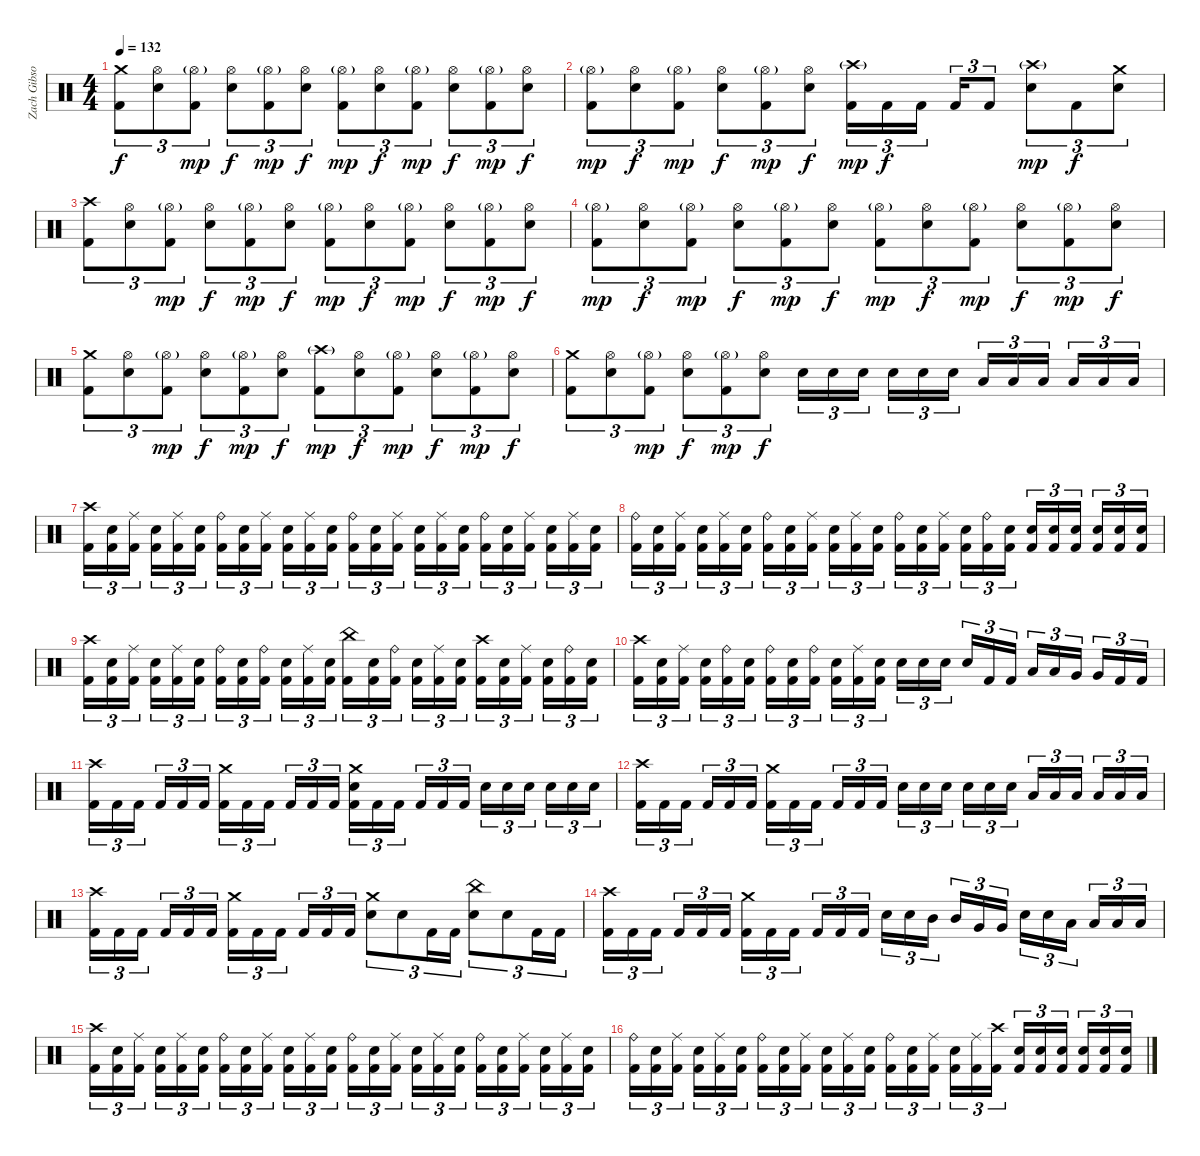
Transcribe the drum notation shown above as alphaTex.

\track ("Zach Gibson (Drums)" "Zach Gibso") {instrument percussion}
\staff {score}
\articulation defaults
\ts (4 4)
\tempo 132
\clef neutral
\ks c
("Crash medium (hit)" "Kick (hit) 2").8{tu (3 2) dy f} ("Hi-Hat (open)" "Snare (hit) 2").8{tu (3 2)} ("Hi-Hat (open)"{g} "Kick (hit) 2").8{tu (3 2) dy mp} ("Hi-Hat (open)" "Snare (hit) 2").8{tu (3 2) dy f} ("Hi-Hat (open)"{g} "Kick (hit) 2").8{tu (3 2) dy mp} ("Hi-Hat (open)" "Snare (hit) 2").8{tu (3 2) dy f} ("Hi-Hat (open)"{g} "Kick (hit) 2").8{tu (3 2) dy mp} ("Hi-Hat (open)" "Snare (hit) 2").8{tu (3 2) dy f} ("Hi-Hat (open)"{g} "Kick (hit) 2").8{tu (3 2) dy mp} ("Hi-Hat (open)" "Snare (hit) 2").8{tu (3 2) dy f} ("Hi-Hat (open)"{g} "Kick (hit) 2").8{tu (3 2) dy mp} ("Hi-Hat (open)" "Snare (hit) 2").8{tu (3 2) dy f} |
("Hi-Hat (open)"{g} "Kick (hit) 2").8{tu (3 2) dy mp} ("Hi-Hat (open)" "Snare (hit) 2").8{tu (3 2) dy f} ("Hi-Hat (open)"{g} "Kick (hit) 2").8{tu (3 2) dy mp} ("Hi-Hat (open)" "Snare (hit) 2").8{tu (3 2) dy f} ("Hi-Hat (open)"{g} "Kick (hit) 2").8{tu (3 2) dy mp} ("Hi-Hat (open)" "Snare (hit) 2").8{tu (3 2) dy f} ("Crash high (hit)"{g} "Kick (hit) 2").16{tu (3 2) dy mp} "Kick (hit) 2".16{tu (3 2) dy f} "Kick (hit) 2".16{tu (3 2)} "Kick (hit) 2".16{tu (3 2)} "Kick (hit) 2".8{tu (3 2)} ("Crash high (hit)"{g} "Snare (hit) 2").8{tu (3 2) dy mp} "Kick (hit) 2".8{tu (3 2) dy f} ("Crash medium (hit)" "Snare (hit) 2").8{tu (3 2)} |
("Crash high (hit)" "Kick (hit) 2").8{tu (3 2)} ("Hi-Hat (open)" "Snare (hit) 2").8{tu (3 2)} ("Hi-Hat (open)"{g} "Kick (hit) 2").8{tu (3 2) dy mp} ("Hi-Hat (open)" "Snare (hit) 2").8{tu (3 2) dy f} ("Hi-Hat (open)"{g} "Kick (hit) 2").8{tu (3 2) dy mp} ("Hi-Hat (open)" "Snare (hit) 2").8{tu (3 2) dy f} ("Hi-Hat (open)"{g} "Kick (hit) 2").8{tu (3 2) dy mp} ("Hi-Hat (open)" "Snare (hit) 2").8{tu (3 2) dy f} ("Hi-Hat (open)"{g} "Kick (hit) 2").8{tu (3 2) dy mp} ("Hi-Hat (open)" "Snare (hit) 2").8{tu (3 2) dy f} ("Hi-Hat (open)"{g} "Kick (hit) 2").8{tu (3 2) dy mp} ("Hi-Hat (open)" "Snare (hit) 2").8{tu (3 2) dy f} |
("Hi-Hat (open)"{g} "Kick (hit) 2").8{tu (3 2) dy mp} ("Hi-Hat (open)" "Snare (hit) 2").8{tu (3 2) dy f} ("Hi-Hat (open)"{g} "Kick (hit) 2").8{tu (3 2) dy mp} ("Hi-Hat (open)" "Snare (hit) 2").8{tu (3 2) dy f} ("Hi-Hat (open)"{g} "Kick (hit) 2").8{tu (3 2) dy mp} ("Hi-Hat (open)" "Snare (hit) 2").8{tu (3 2) dy f} ("Hi-Hat (open)"{g} "Kick (hit) 2").8{tu (3 2) dy mp} ("Hi-Hat (open)" "Snare (hit) 2").8{tu (3 2) dy f} ("Hi-Hat (open)"{g} "Kick (hit) 2").8{tu (3 2) dy mp} ("Hi-Hat (open)" "Snare (hit) 2").8{tu (3 2) dy f} ("Hi-Hat (open)"{g} "Kick (hit) 2").8{tu (3 2) dy mp} ("Hi-Hat (open)" "Snare (hit) 2").8{tu (3 2) dy f} |
("Crash medium (hit)" "Kick (hit) 2").8{tu (3 2)} ("Hi-Hat (open)" "Snare (hit) 2").8{tu (3 2)} ("Hi-Hat (open)"{g} "Kick (hit) 2").8{tu (3 2) dy mp} ("Hi-Hat (open)" "Snare (hit) 2").8{tu (3 2) dy f} ("Hi-Hat (open)"{g} "Kick (hit) 2").8{tu (3 2) dy mp} ("Hi-Hat (open)" "Snare (hit) 2").8{tu (3 2) dy f} ("Crash high (hit)"{g} "Kick (hit) 2").8{tu (3 2) dy mp} ("Hi-Hat (open)" "Snare (hit) 2").8{tu (3 2) dy f} ("Hi-Hat (open)"{g} "Kick (hit) 2").8{tu (3 2) dy mp} ("Hi-Hat (open)" "Snare (hit) 2").8{tu (3 2) dy f} ("Hi-Hat (open)"{g} "Kick (hit) 2").8{tu (3 2) dy mp} ("Hi-Hat (open)" "Snare (hit) 2").8{tu (3 2) dy f} |
("Crash medium (hit)" "Kick (hit) 2").8{tu (3 2)} ("Hi-Hat (open)" "Snare (hit) 2").8{tu (3 2)} ("Hi-Hat (open)"{g} "Kick (hit) 2").8{tu (3 2) dy mp} ("Hi-Hat (open)" "Snare (hit) 2").8{tu (3 2) dy f} ("Hi-Hat (open)"{g} "Kick (hit) 2").8{tu (3 2) dy mp} ("Hi-Hat (open)" "Snare (hit) 2").8{tu (3 2) dy f} "Snare (hit) 2".16{tu (3 2)} "Snare (hit) 2".16{tu (3 2)} "Snare (hit) 2".16{tu (3 2)} "Snare (hit) 2".16{tu (3 2)} "Snare (hit) 2".16{tu (3 2)} "Snare (hit) 2".16{tu (3 2)} "Low Tom (hit)".16{tu (3 2)} "Low Tom (hit)".16{tu (3 2)} "Low Tom (hit)".16{tu (3 2)} "Low Tom (hit)".16{tu (3 2)} "Low Tom (hit)".16{tu (3 2)} "Low Tom (hit)".16{tu (3 2)} |
("Crash high (hit)" "Kick (hit) 2").16{tu (3 2)} ("Kick (hit) 2" "Snare (hit) 2").16{tu (3 2)} ("Ride (middle)" "Kick (hit) 2").16{tu (3 2)} ("Kick (hit) 2" "Snare (hit) 2").16{tu (3 2)} ("Ride (middle)" "Kick (hit) 2").16{tu (3 2)} ("Kick (hit) 2" "Snare (hit) 2").16{tu (3 2)} ("Ride (bell)" "Kick (hit) 2").16{tu (3 2)} ("Kick (hit) 2" "Snare (hit) 2").16{tu (3 2)} ("Ride (middle)" "Kick (hit) 2").16{tu (3 2)} ("Kick (hit) 2" "Snare (hit) 2").16{tu (3 2)} ("Ride (middle)" "Kick (hit) 2").16{tu (3 2)} ("Kick (hit) 2" "Snare (hit) 2").16{tu (3 2)} ("Ride (bell)" "Kick (hit) 2").16{tu (3 2)} ("Kick (hit) 2" "Snare (hit) 2").16{tu (3 2)} ("Ride (middle)" "Kick (hit) 2").16{tu (3 2)} ("Kick (hit) 2" "Snare (hit) 2").16{tu (3 2)} ("Ride (middle)" "Kick (hit) 2").16{tu (3 2)} ("Kick (hit) 2" "Snare (hit) 2").16{tu (3 2)} ("Ride (bell)" "Kick (hit) 2").16{tu (3 2)} ("Kick (hit) 2" "Snare (hit) 2").16{tu (3 2)} ("Ride (middle)" "Kick (hit) 2").16{tu (3 2)} ("Kick (hit) 2" "Snare (hit) 2").16{tu (3 2)} ("Ride (middle)" "Kick (hit) 2").16{tu (3 2)} ("Kick (hit) 2" "Snare (hit) 2").16{tu (3 2)} |
("Ride (bell)" "Kick (hit) 2").16{tu (3 2)} ("Kick (hit) 2" "Snare (hit) 2").16{tu (3 2)} ("Ride (middle)" "Kick (hit) 2").16{tu (3 2)} ("Kick (hit) 2" "Snare (hit) 2").16{tu (3 2)} ("Ride (middle)" "Kick (hit) 2").16{tu (3 2)} ("Kick (hit) 2" "Snare (hit) 2").16{tu (3 2)} ("Ride (bell)" "Kick (hit) 2").16{tu (3 2)} ("Kick (hit) 2" "Snare (hit) 2").16{tu (3 2)} ("Ride (middle)" "Kick (hit) 2").16{tu (3 2)} ("Kick (hit) 2" "Snare (hit) 2").16{tu (3 2)} ("Ride (middle)" "Kick (hit) 2").16{tu (3 2)} ("Kick (hit) 2" "Snare (hit) 2").16{tu (3 2)} ("Ride (bell)" "Kick (hit) 2").16{tu (3 2)} ("Kick (hit) 2" "Snare (hit) 2").16{tu (3 2)} ("Ride (middle)" "Kick (hit) 2").16{tu (3 2)} ("Kick (hit) 2" "Snare (hit) 2").16{tu (3 2)} ("Ride (bell)" "Kick (hit) 2").16{tu (3 2)} ("Kick (hit) 2" "Snare (hit) 2").16{tu (3 2)} ("Snare (hit) 2" "Kick (hit) 2").16{tu (3 2)} ("Snare (hit) 2" "Kick (hit) 2").16{tu (3 2)} ("Snare (hit) 2" "Kick (hit) 2").16{tu (3 2)} ("Snare (hit) 2" "Kick (hit) 2").16{tu (3 2)} ("Snare (hit) 2" "Kick (hit) 2").16{tu (3 2)} ("Snare (hit) 2" "Kick (hit) 2").16{tu (3 2)} |
("Crash high (hit)" "Kick (hit) 2").16{tu (3 2)} ("Kick (hit) 2" "Snare (hit) 2").16{tu (3 2)} ("Ride (middle)" "Kick (hit) 2").16{tu (3 2)} ("Kick (hit) 2" "Snare (hit) 2").16{tu (3 2)} ("Ride (middle)" "Kick (hit) 2").16{tu (3 2)} ("Kick (hit) 2" "Snare (hit) 2").16{tu (3 2)} ("Ride (bell)" "Kick (hit) 2").16{tu (3 2)} ("Kick (hit) 2" "Snare (hit) 2").16{tu (3 2)} ("Ride (bell)" "Kick (hit) 2").16{tu (3 2)} ("Kick (hit) 2" "Snare (hit) 2").16{tu (3 2)} ("Ride (middle)" "Kick (hit) 2").16{tu (3 2)} ("Kick (hit) 2" "Snare (hit) 2").16{tu (3 2)} ("China (hit)" "Kick (hit) 2").16{tu (3 2)} ("Kick (hit) 2" "Snare (hit) 2").16{tu (3 2)} ("Ride (bell)" "Kick (hit) 2").16{tu (3 2)} ("Kick (hit) 2" "Snare (hit) 2").16{tu (3 2)} ("Ride (middle)" "Kick (hit) 2").16{tu (3 2)} ("Kick (hit) 2" "Snare (hit) 2").16{tu (3 2)} ("Crash high (hit)" "Kick (hit) 2").16{tu (3 2)} ("Kick (hit) 2" "Snare (hit) 2").16{tu (3 2)} ("Ride (middle)" "Kick (hit) 2").16{tu (3 2)} ("Kick (hit) 2" "Snare (hit) 2").16{tu (3 2)} ("Ride (bell)" "Kick (hit) 2").16{tu (3 2)} ("Kick (hit) 2" "Snare (hit) 2").16{tu (3 2)} |
("Crash high (hit)" "Kick (hit) 2").16{tu (3 2)} ("Kick (hit) 2" "Snare (hit) 2").16{tu (3 2)} ("Ride (middle)" "Kick (hit) 2").16{tu (3 2)} ("Kick (hit) 2" "Snare (hit) 2").16{tu (3 2)} ("Ride (bell)" "Kick (hit) 2").16{tu (3 2)} ("Kick (hit) 2" "Snare (hit) 2").16{tu (3 2)} ("Ride (bell)" "Kick (hit) 2").16{tu (3 2)} ("Kick (hit) 2" "Snare (hit) 2").16{tu (3 2)} ("Ride (bell)" "Kick (hit) 2").16{tu (3 2)} ("Kick (hit) 2" "Snare (hit) 2").16{tu (3 2)} ("Ride (middle)" "Kick (hit) 2").16{tu (3 2)} ("Kick (hit) 2" "Snare (hit) 2").16{tu (3 2)} "Snare (hit) 2".16{tu (3 2)} "Snare (hit) 2".16{tu (3 2)} "Snare (hit) 2".16{tu (3 2)} "Snare (hit) 2".16{tu (3 2)} "Kick (hit) 2".16{tu (3 2)} "Kick (hit) 2".16{tu (3 2)} "Low Tom (hit)".16{tu (3 2)} "Low Tom (hit)".16{tu (3 2)} "Very Low Tom (hit)".16{tu (3 2)} "Very Low Tom (hit)".16{tu (3 2)} "Kick (hit) 2".16{tu (3 2)} "Kick (hit) 2".16{tu (3 2)} |
("Crash high (hit)" "Kick (hit) 2").16{tu (3 2)} "Kick (hit) 2".16{tu (3 2)} "Kick (hit) 2".16{tu (3 2)} "Kick (hit) 2".16{tu (3 2)} "Kick (hit) 2".16{tu (3 2)} "Kick (hit) 2".16{tu (3 2)} ("Crash medium (hit)" "Kick (hit) 2").16{tu (3 2)} "Kick (hit) 2".16{tu (3 2)} "Kick (hit) 2".16{tu (3 2)} "Kick (hit) 2".16{tu (3 2)} "Kick (hit) 2".16{tu (3 2)} "Kick (hit) 2".16{tu (3 2)} ("Snare (hit) 2" "Crash medium (hit)" "Kick (hit) 2").16{tu (3 2)} "Kick (hit) 2".16{tu (3 2)} "Kick (hit) 2".16{tu (3 2)} "Kick (hit) 2".16{tu (3 2)} "Kick (hit) 2".16{tu (3 2)} "Kick (hit) 2".16{tu (3 2)} "Snare (hit) 2".16{tu (3 2)} "Snare (hit) 2".16{tu (3 2)} "Snare (hit) 2".16{tu (3 2)} "Snare (hit) 2".16{tu (3 2)} "Snare (hit) 2".16{tu (3 2)} "Snare (hit) 2".16{tu (3 2)} |
("Crash high (hit)" "Kick (hit) 2").16{tu (3 2)} "Kick (hit) 2".16{tu (3 2)} "Kick (hit) 2".16{tu (3 2)} "Kick (hit) 2".16{tu (3 2)} "Kick (hit) 2".16{tu (3 2)} "Kick (hit) 2".16{tu (3 2)} ("Crash medium (hit)" "Kick (hit) 2").16{tu (3 2)} "Kick (hit) 2".16{tu (3 2)} "Kick (hit) 2".16{tu (3 2)} "Kick (hit) 2".16{tu (3 2)} "Kick (hit) 2".16{tu (3 2)} "Kick (hit) 2".16{tu (3 2)} "Snare (hit) 2".16{tu (3 2)} "Snare (hit) 2".16{tu (3 2)} "Snare (hit) 2".16{tu (3 2)} "Snare (hit) 2".16{tu (3 2)} "Snare (hit) 2".16{tu (3 2)} "Snare (hit) 2".16{tu (3 2)} "Low Tom (hit)".16{tu (3 2)} "Low Tom (hit)".16{tu (3 2)} "Low Tom (hit)".16{tu (3 2)} "Low Tom (hit)".16{tu (3 2)} "Low Floor Tom (hit)".16{tu (3 2)} "Low Floor Tom (hit)".16{tu (3 2)} |
("Crash high (hit)" "Kick (hit) 2").16{tu (3 2)} "Kick (hit) 2".16{tu (3 2)} "Kick (hit) 2".16{tu (3 2)} "Kick (hit) 2".16{tu (3 2)} "Kick (hit) 2".16{tu (3 2)} "Kick (hit) 2".16{tu (3 2)} ("Crash medium (hit)" "Kick (hit) 2").16{tu (3 2)} "Kick (hit) 2".16{tu (3 2)} "Kick (hit) 2".16{tu (3 2)} "Kick (hit) 2".16{tu (3 2)} "Kick (hit) 2".16{tu (3 2)} "Kick (hit) 2".16{tu (3 2)} ("Snare (hit) 2" "Crash medium (hit)").8{tu (3 2)} "Snare (hit) 2".8{tu (3 2)} "Kick (hit) 2".16{tu (3 2)} "Kick (hit) 2".16{tu (3 2)} ("China (hit)" "Snare (hit) 2").8{tu (3 2)} "Snare (hit) 2".8{tu (3 2)} "Kick (hit) 2".16{tu (3 2)} "Kick (hit) 2".16{tu (3 2)} |
("Crash high (hit)" "Kick (hit) 2").16{tu (3 2)} "Kick (hit) 2".16{tu (3 2)} "Kick (hit) 2".16{tu (3 2)} "Kick (hit) 2".16{tu (3 2)} "Kick (hit) 2".16{tu (3 2)} "Kick (hit) 2".16{tu (3 2)} ("Crash medium (hit)" "Kick (hit) 2").16{tu (3 2)} "Kick (hit) 2".16{tu (3 2)} "Kick (hit) 2".16{tu (3 2)} "Kick (hit) 2".16{tu (3 2)} "Kick (hit) 2".16{tu (3 2)} "Kick (hit) 2".16{tu (3 2)} "Snare (hit) 2".16{tu (3 2)} "Snare (hit) 2".16{tu (3 2)} "Mid Tom (hit)".16{tu (3 2)} "Mid Tom (hit)".16{tu (3 2)} "Very Low Tom (hit)".16{tu (3 2)} "Very Low Tom (hit)".16{tu (3 2)} "Snare (hit) 2".16{tu (3 2)} "Snare (hit) 2".16{tu (3 2)} "Low Tom (hit)".16{tu (3 2)} "Low Tom (hit)".16{tu (3 2)} "Low Floor Tom (hit)".16{tu (3 2)} "Low Floor Tom (hit)".16{tu (3 2)} |
("Crash high (hit)" "Kick (hit) 2").16{tu (3 2)} ("Kick (hit) 2" "Snare (hit) 2").16{tu (3 2)} ("Ride (middle)" "Kick (hit) 2").16{tu (3 2)} ("Kick (hit) 2" "Snare (hit) 2").16{tu (3 2)} ("Ride (middle)" "Kick (hit) 2").16{tu (3 2)} ("Kick (hit) 2" "Snare (hit) 2").16{tu (3 2)} ("Ride (bell)" "Kick (hit) 2").16{tu (3 2)} ("Kick (hit) 2" "Snare (hit) 2").16{tu (3 2)} ("Ride (middle)" "Kick (hit) 2").16{tu (3 2)} ("Kick (hit) 2" "Snare (hit) 2").16{tu (3 2)} ("Ride (middle)" "Kick (hit) 2").16{tu (3 2)} ("Kick (hit) 2" "Snare (hit) 2").16{tu (3 2)} ("Ride (bell)" "Kick (hit) 2").16{tu (3 2)} ("Kick (hit) 2" "Snare (hit) 2").16{tu (3 2)} ("Ride (middle)" "Kick (hit) 2").16{tu (3 2)} ("Kick (hit) 2" "Snare (hit) 2").16{tu (3 2)} ("Ride (middle)" "Kick (hit) 2").16{tu (3 2)} ("Kick (hit) 2" "Snare (hit) 2").16{tu (3 2)} ("Ride (bell)" "Kick (hit) 2").16{tu (3 2)} ("Kick (hit) 2" "Snare (hit) 2").16{tu (3 2)} ("Ride (middle)" "Kick (hit) 2").16{tu (3 2)} ("Kick (hit) 2" "Snare (hit) 2").16{tu (3 2)} ("Ride (middle)" "Kick (hit) 2").16{tu (3 2)} ("Kick (hit) 2" "Snare (hit) 2").16{tu (3 2)} |
("Ride (bell)" "Kick (hit) 2").16{tu (3 2)} ("Kick (hit) 2" "Snare (hit) 2").16{tu (3 2)} ("Ride (middle)" "Kick (hit) 2").16{tu (3 2)} ("Kick (hit) 2" "Snare (hit) 2").16{tu (3 2)} ("Ride (middle)" "Kick (hit) 2").16{tu (3 2)} ("Kick (hit) 2" "Snare (hit) 2").16{tu (3 2)} ("Ride (bell)" "Kick (hit) 2").16{tu (3 2)} ("Kick (hit) 2" "Snare (hit) 2").16{tu (3 2)} ("Ride (middle)" "Kick (hit) 2").16{tu (3 2)} ("Kick (hit) 2" "Snare (hit) 2").16{tu (3 2)} ("Ride (middle)" "Kick (hit) 2").16{tu (3 2)} ("Kick (hit) 2" "Snare (hit) 2").16{tu (3 2)} ("Ride (bell)" "Kick (hit) 2").16{tu (3 2)} ("Kick (hit) 2" "Snare (hit) 2").16{tu (3 2)} ("Ride (middle)" "Kick (hit) 2").16{tu (3 2)} ("Kick (hit) 2" "Snare (hit) 2").16{tu (3 2)} ("Ride (middle)" "Kick (hit) 2").16{tu (3 2)} ("Crash high (hit)" "Kick (hit) 2").16{tu (3 2)} ("Snare (hit) 2" "Kick (hit) 2").16{tu (3 2)} ("Snare (hit) 2" "Kick (hit) 2").16{tu (3 2)} ("Snare (hit) 2" "Kick (hit) 2").16{tu (3 2)} ("Snare (hit) 2" "Kick (hit) 2").16{tu (3 2)} ("Snare (hit) 2" "Kick (hit) 2").16{tu (3 2)} ("Snare (hit) 2" "Kick (hit) 2").16{tu (3 2)}
